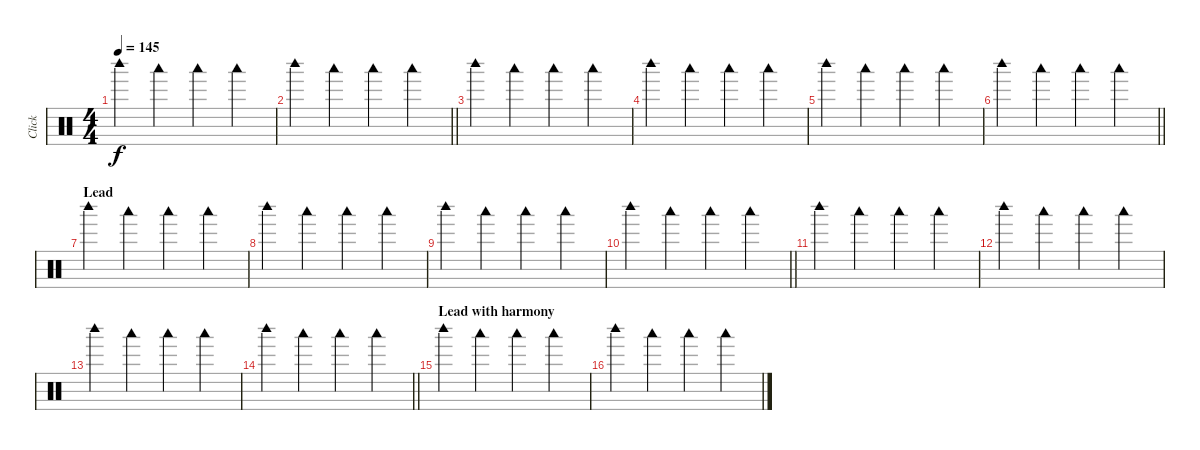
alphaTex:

\track ("Click" "Click") {mute instrument percussion}
\staff {score}
\articulation defaults
\ts (4 4)
\tempo 145
\clef neutral
\ks c "Woodblock high (hit)".4{dy f} "Woodblock low (hit)".4 "Woodblock low (hit)".4 "Woodblock low (hit)".4
|
\barLineRight lightlight "Woodblock high (hit)".4 "Woodblock low (hit)".4 "Woodblock low (hit)".4 "Woodblock low (hit)".4
|
"Woodblock high (hit)".4 "Woodblock low (hit)".4 "Woodblock low (hit)".4 "Woodblock low (hit)".4 |
"Woodblock high (hit)".4 "Woodblock low (hit)".4 "Woodblock low (hit)".4 "Woodblock low (hit)".4 |
"Woodblock high (hit)".4 "Woodblock low (hit)".4 "Woodblock low (hit)".4 "Woodblock low (hit)".4 |
\barLineRight lightlight "Woodblock high (hit)".4 "Woodblock low (hit)".4 "Woodblock low (hit)".4 "Woodblock low (hit)".4
|
\section ("" "Lead")
"Woodblock high (hit)".4 "Woodblock low (hit)".4 "Woodblock low (hit)".4 "Woodblock low (hit)".4 |
"Woodblock high (hit)".4 "Woodblock low (hit)".4 "Woodblock low (hit)".4 "Woodblock low (hit)".4 |
"Woodblock high (hit)".4 "Woodblock low (hit)".4 "Woodblock low (hit)".4 "Woodblock low (hit)".4 |
\barLineRight lightlight "Woodblock high (hit)".4 "Woodblock low (hit)".4 "Woodblock low (hit)".4 "Woodblock low (hit)".4
|
"Woodblock high (hit)".4 "Woodblock low (hit)".4 "Woodblock low (hit)".4 "Woodblock low (hit)".4 |
"Woodblock high (hit)".4 "Woodblock low (hit)".4 "Woodblock low (hit)".4 "Woodblock low (hit)".4 |
"Woodblock high (hit)".4 "Woodblock low (hit)".4 "Woodblock low (hit)".4 "Woodblock low (hit)".4 |
\barLineRight lightlight "Woodblock high (hit)".4 "Woodblock low (hit)".4 "Woodblock low (hit)".4 "Woodblock low (hit)".4
|
\section ("" "Lead with harmony")
"Woodblock high (hit)".4 "Woodblock low (hit)".4 "Woodblock low (hit)".4 "Woodblock low (hit)".4 |
"Woodblock high (hit)".4 "Woodblock low (hit)".4 "Woodblock low (hit)".4 "Woodblock low (hit)".4
